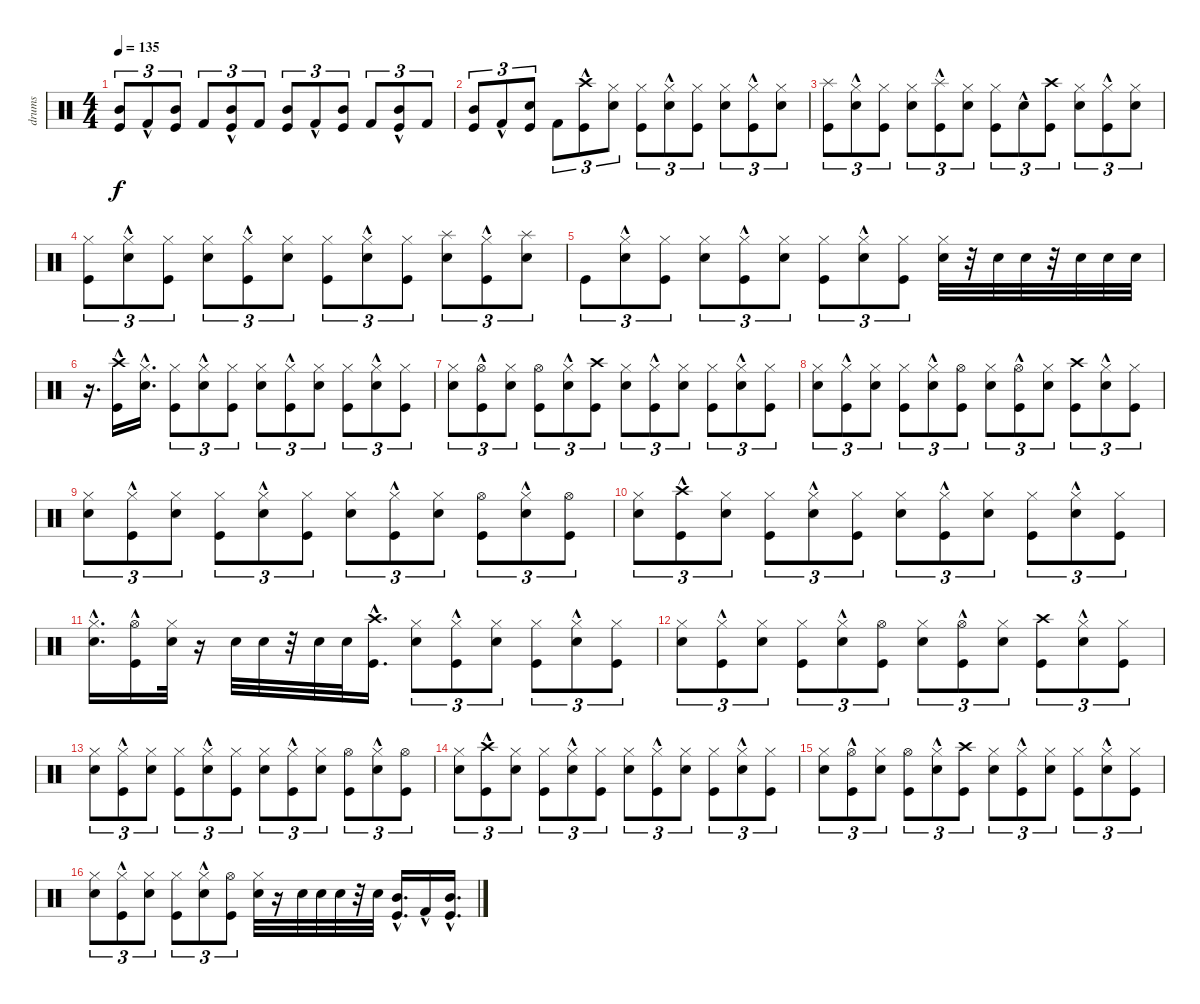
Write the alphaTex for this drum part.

\track ("drums" "drums") {instrument percussion}
\staff {score}
\articulation defaults
\ts (4 4)
\tempo 135
\clef neutral
\ks c
("Kick (hit)" "Mid Tom (hit)").8{tu (3 2) dy f} "Kick (hit) 2"{hac}.8{tu (3 2)} ("Kick (hit)" "Mid Tom (hit)").8{tu (3 2)} "Kick (hit) 2".8{tu (3 2)} ("Mid Tom (hit)"{hac} "Kick (hit)"{hac}).8{tu (3 2)} "Kick (hit) 2".8{tu (3 2)} ("Mid Tom (hit)" "Kick (hit)").8{tu (3 2)} "Kick (hit) 2"{hac}.8{tu (3 2)} ("Mid Tom (hit)" "Kick (hit)").8{tu (3 2)} "Kick (hit) 2".8{tu (3 2)} ("Mid Tom (hit)"{hac} "Kick (hit)"{hac}).8{tu (3 2)} "Kick (hit) 2".8{tu (3 2)} |
("Kick (hit)" "Mid Tom (hit)").8{tu (3 2)} "Kick (hit) 2"{hac}.8{tu (3 2)} ("Kick (hit)" "Snare (hit) 2").8{tu (3 2)} "Kick (hit) 2".8{tu (3 2)} ("Kick (hit)"{hac} "Crash high (hit)").8{tu (3 2)} ("Snare (hit) 2" "Hi-Hat (closed)").8{tu (3 2)} ("Hi-Hat (closed)" "Kick (hit)").8{tu (3 2)} ("Hi-Hat (closed)" "Snare (hit) 2"{hac}).8{tu (3 2)} ("Kick (hit)" "Hi-Hat (closed)").8{tu (3 2)} ("Hi-Hat (closed)" "Snare (hit) 2").8{tu (3 2)} ("Hi-Hat (closed)" "Kick (hit)"{hac}).8{tu (3 2)} ("Hi-Hat (closed)" "Snare (hit) 2").8{tu (3 2)} |
("Kick (hit)" "Splash (hit)").8{tu (3 2)} ("Snare (hit) 2"{hac} "Hi-Hat (closed)").8{tu (3 2)} ("Hi-Hat (closed)" "Kick (hit)").8{tu (3 2)} ("Hi-Hat (closed)" "Snare (hit) 2").8{tu (3 2)} ("Kick (hit)"{hac} "Splash (hit)").8{tu (3 2)} ("Hi-Hat (closed)" "Snare (hit) 2").8{tu (3 2)} ("Kick (hit)" "Hi-Hat (closed)").8{tu (3 2)} "Snare (hit) 2"{hac}.8{tu (3 2)} ("Kick (hit)" "Crash high (hit)").8{tu (3 2)} ("Snare (hit) 2" "Hi-Hat (closed)").8{tu (3 2)} ("Hi-Hat (closed)" "Kick (hit)"{hac}).8{tu (3 2)} ("Hi-Hat (closed)" "Snare (hit) 2").8{tu (3 2)} |
("Kick (hit)" "Hi-Hat (closed)").8{tu (3 2)} ("Hi-Hat (closed)" "Snare (hit) 2"{hac}).8{tu (3 2)} ("Hi-Hat (closed)" "Kick (hit)").8{tu (3 2)} ("Hi-Hat (closed)" "Snare (hit) 2").8{tu (3 2)} ("Kick (hit)"{hac} "Hi-Hat (closed)").8{tu (3 2)} ("Snare (hit) 2" "Hi-Hat (closed)").8{tu (3 2)} ("Hi-Hat (closed)" "Kick (hit)").8{tu (3 2)} ("Hi-Hat (closed)" "Snare (hit) 2"{hac}).8{tu (3 2)} ("Kick (hit)" "Hi-Hat (closed)").8{tu (3 2)} ("Splash (hit)" "Snare (hit) 2").8{tu (3 2)} ("Kick (hit)"{hac} "Hi-Hat (closed)").8{tu (3 2)} ("Snare (hit) 2" "Splash (hit)").8{tu (3 2)} |
"Kick (hit)".8{tu (3 2)} ("Snare (hit) 2"{hac} "Hi-Hat (closed)").8{tu (3 2)} ("Hi-Hat (closed)" "Kick (hit)").8{tu (3 2)} ("Hi-Hat (closed)" "Snare (hit) 2").8{tu (3 2)} ("Kick (hit)"{hac} "Hi-Hat (closed)").8{tu (3 2)} ("Hi-Hat (closed)" "Snare (hit) 2").8{tu (3 2)} ("Hi-Hat (closed)" "Kick (hit)").8{tu (3 2)} ("Hi-Hat (closed)" "Snare (hit) 2"{hac}).8{tu (3 2)} ("Kick (hit)" "Hi-Hat (closed)").8{tu (3 2)} ("Snare (hit) 2" "Hi-Hat (closed)").32 r.32 "Snare (hit) 2".32 "Snare (hit) 2".32 r.32 "Snare (hit) 2".32 "Snare (hit) 2".32 "Snare (hit) 2".32 |
r.16{d} ("Kick (hit)"{hac} "Crash high (hit)"{hac}).16 ("Hi-Hat (closed)" "Snare (hit) 2"{hac}).16{d} ("Hi-Hat (closed)" "Kick (hit)").8{tu (3 2)} ("Snare (hit) 2"{hac} "Hi-Hat (closed)").8{tu (3 2)} ("Hi-Hat (closed)" "Kick (hit)").8{tu (3 2)} ("Hi-Hat (closed)" "Snare (hit) 2").8{tu (3 2)} ("Kick (hit)"{hac} "Hi-Hat (closed)").8{tu (3 2)} ("Hi-Hat (closed)" "Snare (hit) 2").8{tu (3 2)} ("Hi-Hat (closed)" "Kick (hit)").8{tu (3 2)} ("Snare (hit) 2"{hac} "Hi-Hat (closed)").8{tu (3 2)} ("Hi-Hat (closed)" "Kick (hit)").8{tu (3 2)} |
("Hi-Hat (closed)" "Snare (hit) 2").8{tu (3 2)} ("Hi-Hat (open)" "Kick (hit)"{hac}).8{tu (3 2)} ("Hi-Hat (closed)" "Snare (hit) 2").8{tu (3 2)} ("Hi-Hat (open)" "Kick (hit)").8{tu (3 2)} ("Hi-Hat (closed)" "Snare (hit) 2"{hac}).8{tu (3 2)} ("Kick (hit)" "Crash high (hit)").8{tu (3 2)} ("Hi-Hat (closed)" "Snare (hit) 2").8{tu (3 2)} ("Hi-Hat (closed)" "Kick (hit)"{hac}).8{tu (3 2)} ("Snare (hit) 2" "Hi-Hat (closed)").8{tu (3 2)} ("Hi-Hat (closed)" "Kick (hit)").8{tu (3 2)} ("Hi-Hat (closed)" "Snare (hit) 2"{hac}).8{tu (3 2)} ("Kick (hit)" "Hi-Hat (closed)").8{tu (3 2)} |
("Hi-Hat (closed)" "Snare (hit) 2").8{tu (3 2)} ("Hi-Hat (closed)" "Kick (hit)"{hac}).8{tu (3 2)} ("Snare (hit) 2" "Hi-Hat (closed)").8{tu (3 2)} ("Hi-Hat (closed)" "Kick (hit)").8{tu (3 2)} ("Hi-Hat (closed)" "Snare (hit) 2"{hac}).8{tu (3 2)} ("Hi-Hat (open)" "Kick (hit)").8{tu (3 2)} ("Hi-Hat (closed)" "Snare (hit) 2").8{tu (3 2)} ("Hi-Hat (open)" "Kick (hit)"{hac}).8{tu (3 2)} ("Hi-Hat (closed)" "Snare (hit) 2").8{tu (3 2)} ("Kick (hit)" "Crash high (hit)").8{tu (3 2)} ("Hi-Hat (closed)" "Snare (hit) 2"{hac}).8{tu (3 2)} ("Hi-Hat (closed)" "Kick (hit)").8{tu (3 2)} |
("Snare (hit) 2" "Hi-Hat (closed)").8{tu (3 2)} ("Hi-Hat (closed)" "Kick (hit)"{hac}).8{tu (3 2)} ("Hi-Hat (closed)" "Snare (hit) 2").8{tu (3 2)} ("Kick (hit)" "Hi-Hat (closed)").8{tu (3 2)} ("Hi-Hat (closed)" "Snare (hit) 2"{hac}).8{tu (3 2)} ("Hi-Hat (closed)" "Kick (hit)").8{tu (3 2)} ("Snare (hit) 2" "Hi-Hat (closed)").8{tu (3 2)} ("Hi-Hat (closed)" "Kick (hit)"{hac}).8{tu (3 2)} ("Hi-Hat (closed)" "Snare (hit) 2").8{tu (3 2)} ("Hi-Hat (open)" "Kick (hit)").8{tu (3 2)} ("Hi-Hat (closed)" "Snare (hit) 2"{hac}).8{tu (3 2)} ("Hi-Hat (open)" "Kick (hit)").8{tu (3 2)} |
("Hi-Hat (closed)" "Snare (hit) 2").8{tu (3 2)} ("Kick (hit)"{hac} "Crash high (hit)"{hac}).8{tu (3 2)} ("Hi-Hat (closed)" "Snare (hit) 2").8{tu (3 2)} ("Hi-Hat (closed)" "Kick (hit)").8{tu (3 2)} ("Snare (hit) 2"{hac} "Hi-Hat (closed)").8{tu (3 2)} ("Hi-Hat (closed)" "Kick (hit)").8{tu (3 2)} ("Hi-Hat (closed)" "Snare (hit) 2").8{tu (3 2)} ("Kick (hit)"{hac} "Hi-Hat (closed)").8{tu (3 2)} ("Hi-Hat (closed)" "Snare (hit) 2").8{tu (3 2)} ("Hi-Hat (closed)" "Kick (hit)").8{tu (3 2)} ("Snare (hit) 2"{hac} "Hi-Hat (closed)").8{tu (3 2)} ("Hi-Hat (closed)" "Kick (hit)").8{tu (3 2)} |
("Hi-Hat (closed)" "Snare (hit) 2"{hac}).16{d} ("Hi-Hat (open)" "Kick (hit)"{hac}).16 ("Hi-Hat (closed)" "Snare (hit) 2").32 r.16 "Snare (hit) 2".32 "Snare (hit) 2".32 r.32 "Snare (hit) 2".32 "Snare (hit) 2".32 ("Kick (hit)"{hac} "Crash high (hit)"{hac}).16{d} ("Hi-Hat (closed)" "Snare (hit) 2").8{tu (3 2)} ("Hi-Hat (closed)" "Kick (hit)"{hac}).8{tu (3 2)} ("Snare (hit) 2" "Hi-Hat (closed)").8{tu (3 2)} ("Hi-Hat (closed)" "Kick (hit)").8{tu (3 2)} ("Hi-Hat (closed)" "Snare (hit) 2"{hac}).8{tu (3 2)} ("Kick (hit)" "Hi-Hat (closed)").8{tu (3 2)} |
("Hi-Hat (closed)" "Snare (hit) 2").8{tu (3 2)} ("Hi-Hat (closed)" "Kick (hit)"{hac}).8{tu (3 2)} ("Snare (hit) 2" "Hi-Hat (closed)").8{tu (3 2)} ("Hi-Hat (closed)" "Kick (hit)").8{tu (3 2)} ("Hi-Hat (closed)" "Snare (hit) 2"{hac}).8{tu (3 2)} ("Hi-Hat (open)" "Kick (hit)").8{tu (3 2)} ("Hi-Hat (closed)" "Snare (hit) 2").8{tu (3 2)} ("Hi-Hat (open)" "Kick (hit)"{hac}).8{tu (3 2)} ("Hi-Hat (closed)" "Snare (hit) 2").8{tu (3 2)} ("Kick (hit)" "Crash high (hit)").8{tu (3 2)} ("Hi-Hat (closed)" "Snare (hit) 2"{hac}).8{tu (3 2)} ("Hi-Hat (closed)" "Kick (hit)").8{tu (3 2)} |
("Snare (hit) 2" "Hi-Hat (closed)").8{tu (3 2)} ("Hi-Hat (closed)" "Kick (hit)"{hac}).8{tu (3 2)} ("Hi-Hat (closed)" "Snare (hit) 2").8{tu (3 2)} ("Kick (hit)" "Hi-Hat (closed)").8{tu (3 2)} ("Hi-Hat (closed)" "Snare (hit) 2"{hac}).8{tu (3 2)} ("Hi-Hat (closed)" "Kick (hit)").8{tu (3 2)} ("Snare (hit) 2" "Hi-Hat (closed)").8{tu (3 2)} ("Hi-Hat (closed)" "Kick (hit)"{hac}).8{tu (3 2)} ("Hi-Hat (closed)" "Snare (hit) 2").8{tu (3 2)} ("Hi-Hat (open)" "Kick (hit)").8{tu (3 2)} ("Hi-Hat (closed)" "Snare (hit) 2"{hac}).8{tu (3 2)} ("Hi-Hat (open)" "Kick (hit)").8{tu (3 2)} |
("Hi-Hat (closed)" "Snare (hit) 2").8{tu (3 2)} ("Kick (hit)"{hac} "Crash high (hit)"{hac}).8{tu (3 2)} ("Hi-Hat (closed)" "Snare (hit) 2").8{tu (3 2)} ("Hi-Hat (closed)" "Kick (hit)").8{tu (3 2)} ("Snare (hit) 2"{hac} "Hi-Hat (closed)").8{tu (3 2)} ("Hi-Hat (closed)" "Kick (hit)").8{tu (3 2)} ("Hi-Hat (closed)" "Snare (hit) 2").8{tu (3 2)} ("Kick (hit)"{hac} "Hi-Hat (closed)").8{tu (3 2)} ("Hi-Hat (closed)" "Snare (hit) 2").8{tu (3 2)} ("Hi-Hat (closed)" "Kick (hit)").8{tu (3 2)} ("Snare (hit) 2"{hac} "Hi-Hat (closed)").8{tu (3 2)} ("Hi-Hat (closed)" "Kick (hit)").8{tu (3 2)} |
("Hi-Hat (closed)" "Snare (hit) 2").8{tu (3 2)} ("Hi-Hat (open)" "Kick (hit)"{hac}).8{tu (3 2)} ("Hi-Hat (closed)" "Snare (hit) 2").8{tu (3 2)} ("Hi-Hat (open)" "Kick (hit)").8{tu (3 2)} ("Hi-Hat (closed)" "Snare (hit) 2"{hac}).8{tu (3 2)} ("Kick (hit)" "Crash high (hit)").8{tu (3 2)} ("Hi-Hat (closed)" "Snare (hit) 2").8{tu (3 2)} ("Hi-Hat (closed)" "Kick (hit)"{hac}).8{tu (3 2)} ("Snare (hit) 2" "Hi-Hat (closed)").8{tu (3 2)} ("Hi-Hat (closed)" "Kick (hit)").8{tu (3 2)} ("Hi-Hat (closed)" "Snare (hit) 2"{hac}).8{tu (3 2)} ("Kick (hit)" "Hi-Hat (closed)").8{tu (3 2)} |
("Hi-Hat (closed)" "Snare (hit) 2").8{tu (3 2)} ("Hi-Hat (closed)" "Kick (hit)"{hac}).8{tu (3 2)} ("Snare (hit) 2" "Hi-Hat (closed)").8{tu (3 2)} ("Hi-Hat (closed)" "Kick (hit)").8{tu (3 2)} ("Hi-Hat (closed)" "Snare (hit) 2"{hac}).8{tu (3 2)} ("Hi-Hat (open)" "Kick (hit)").8{tu (3 2)} ("Hi-Hat (closed)" "Snare (hit) 2").32 r.16 "Snare (hit) 2".32 "Snare (hit) 2".32 "Snare (hit) 2".32 r.32 "Snare (hit) 2".32 ("Kick (hit)"{hac} "Mid Tom (hit)"{hac}).16{d} "Kick (hit) 2"{hac}.16 ("Kick (hit)"{hac} "Mid Tom (hit)"{hac}).16{d}
